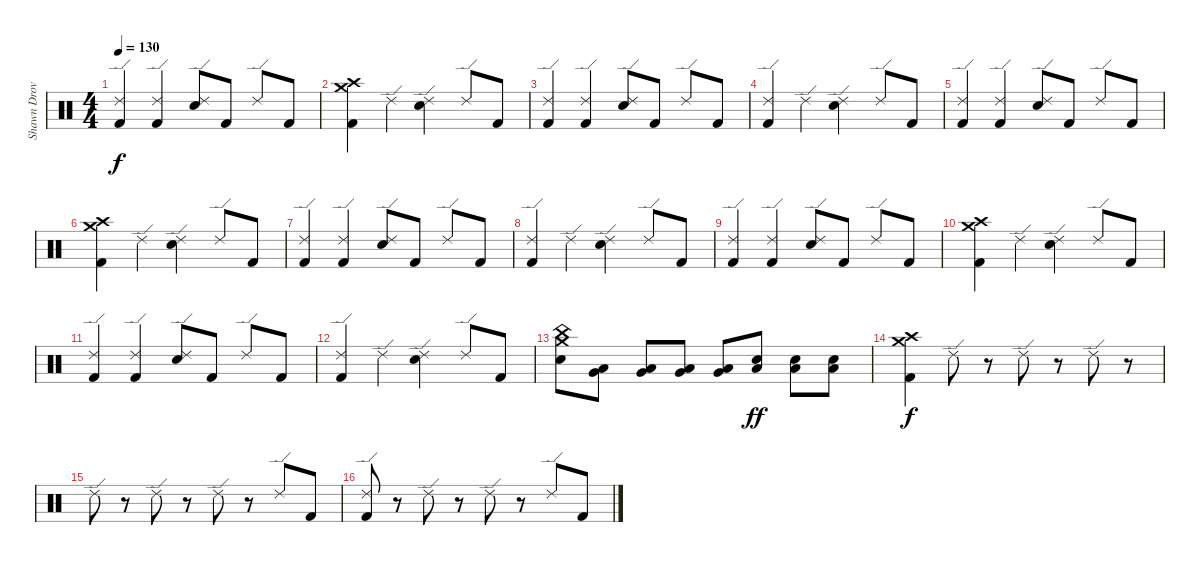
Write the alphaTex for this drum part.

\track ("Shawn Drover" "Shawn Drov") {instrument percussion}
\staff {score}
\articulation defaults
\ts (4 4)
\tempo 130
\clef neutral
\ks c
("Ride (edge) 2" "Kick (hit) 2").4{dy f} ("Ride (edge) 2" "Kick (hit) 2").4 ("Ride (edge) 2" "Snare (hit) 2").8 "Kick (hit) 2".8 "Ride (edge) 2".8 "Kick (hit) 2".8 |
("Crash high (hit)" "Crash medium (hit)" "Kick (hit) 2").4 "Ride (edge) 2".4 ("Ride (edge) 2" "Snare (hit) 2").4 "Ride (edge) 2".8 "Kick (hit) 2".8 |
("Ride (edge) 2" "Kick (hit) 2").4 ("Ride (edge) 2" "Kick (hit) 2").4 ("Ride (edge) 2" "Snare (hit) 2").8 "Kick (hit) 2".8 "Ride (edge) 2".8 "Kick (hit) 2".8 |
("Ride (edge) 2" "Kick (hit) 2").4 "Ride (edge) 2".4 ("Ride (edge) 2" "Snare (hit) 2").4 "Ride (edge) 2".8 "Kick (hit) 2".8 |
("Ride (edge) 2" "Kick (hit) 2").4 ("Ride (edge) 2" "Kick (hit) 2").4 ("Ride (edge) 2" "Snare (hit) 2").8 "Kick (hit) 2".8 "Ride (edge) 2".8 "Kick (hit) 2".8 |
("Crash high (hit)" "Crash medium (hit)" "Kick (hit) 2").4 "Ride (edge) 2".4 ("Ride (edge) 2" "Snare (hit) 2").4 "Ride (edge) 2".8 "Kick (hit) 2".8 |
("Ride (edge) 2" "Kick (hit) 2").4 ("Ride (edge) 2" "Kick (hit) 2").4 ("Ride (edge) 2" "Snare (hit) 2").8 "Kick (hit) 2".8 "Ride (edge) 2".8 "Kick (hit) 2".8 |
("Ride (edge) 2" "Kick (hit) 2").4 "Ride (edge) 2".4 ("Ride (edge) 2" "Snare (hit) 2").4 "Ride (edge) 2".8 "Kick (hit) 2".8 |
("Ride (edge) 2" "Kick (hit) 2").4 ("Ride (edge) 2" "Kick (hit) 2").4 ("Ride (edge) 2" "Snare (hit) 2").8 "Kick (hit) 2".8 "Ride (edge) 2".8 "Kick (hit) 2".8 |
("Crash high (hit)" "Crash medium (hit)" "Kick (hit) 2").4 "Ride (edge) 2".4 ("Ride (edge) 2" "Snare (hit) 2").4 "Ride (edge) 2".8 "Kick (hit) 2".8 |
("Ride (edge) 2" "Kick (hit) 2").4 ("Ride (edge) 2" "Kick (hit) 2").4 ("Ride (edge) 2" "Snare (hit) 2").8 "Kick (hit) 2".8 "Ride (edge) 2".8 "Kick (hit) 2".8 |
("Ride (edge) 2" "Kick (hit) 2").4 "Ride (edge) 2".4 ("Ride (edge) 2" "Snare (hit) 2").4 "Ride (edge) 2".8 "Kick (hit) 2".8 |
("China (hit)" "Snare (hit) 2" "Crash medium (hit)").8 ("Low Floor Tom (hit)" "Very Low Tom (hit)").8 ("Low Floor Tom (hit)" "Very Low Tom (hit)").8 ("Low Floor Tom (hit)" "Very Low Tom (hit)").8 ("Low Floor Tom (hit)" "Very Low Tom (hit)").8 ("Snare (hit) 2" "Low Floor Tom (hit)").8{dy ff} ("Snare (hit) 2" "Low Floor Tom (hit)").8 ("Snare (hit) 2" "Low Floor Tom (hit)").8 |
("Crash medium (hit)" "Crash high (hit)" "Kick (hit) 2").4{dy f} "Ride (edge) 2".8 r.8 "Ride (edge) 2".8 r.8 "Ride (edge) 2".8 r.8 |
"Ride (edge) 2".8 r.8 "Ride (edge) 2".8 r.8 "Ride (edge) 2".8 r.8 "Ride (edge) 2".8 "Kick (hit) 2".8 |
("Ride (edge) 2" "Kick (hit) 2").8 r.8 "Ride (edge) 2".8 r.8 "Ride (edge) 2".8 r.8 "Ride (edge) 2".8 "Kick (hit) 2".8
